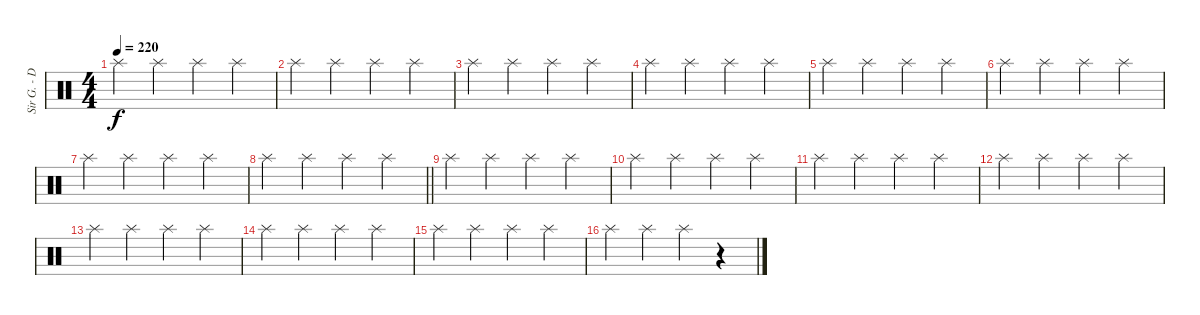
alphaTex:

\track ("Sir G. - Drums" "Sir G. - D") {instrument percussion}
\staff {score}
\articulation defaults
\ts (4 4)
\tempo 220
\clef neutral
\ks c "Splash (hit)".4{dy f} "Splash (hit)".4 "Splash (hit)".4 "Splash (hit)".4
|
"Splash (hit)".4 "Splash (hit)".4 "Splash (hit)".4 "Splash (hit)".4 |
"Splash (hit)".4 "Splash (hit)".4 "Splash (hit)".4 "Splash (hit)".4 |
"Splash (hit)".4 "Splash (hit)".4 "Splash (hit)".4 "Splash (hit)".4 |
"Splash (hit)".4 "Splash (hit)".4 "Splash (hit)".4 "Splash (hit)".4 |
"Splash (hit)".4 "Splash (hit)".4 "Splash (hit)".4 "Splash (hit)".4 |
"Splash (hit)".4 "Splash (hit)".4 "Splash (hit)".4 "Splash (hit)".4 |
\barLineRight lightlight "Splash (hit)".4 "Splash (hit)".4 "Splash (hit)".4 "Splash (hit)".4
|
"Splash (hit)".4 "Splash (hit)".4 "Splash (hit)".4 "Splash (hit)".4 |
"Splash (hit)".4 "Splash (hit)".4 "Splash (hit)".4 "Splash (hit)".4 |
"Splash (hit)".4 "Splash (hit)".4 "Splash (hit)".4 "Splash (hit)".4 |
"Splash (hit)".4 "Splash (hit)".4 "Splash (hit)".4 "Splash (hit)".4 |
"Splash (hit)".4 "Splash (hit)".4 "Splash (hit)".4 "Splash (hit)".4 |
"Splash (hit)".4 "Splash (hit)".4 "Splash (hit)".4 "Splash (hit)".4 |
"Splash (hit)".4 "Splash (hit)".4 "Splash (hit)".4 "Splash (hit)".4 |
"Splash (hit)".4 "Splash (hit)".4 "Splash (hit)".4 r.4
